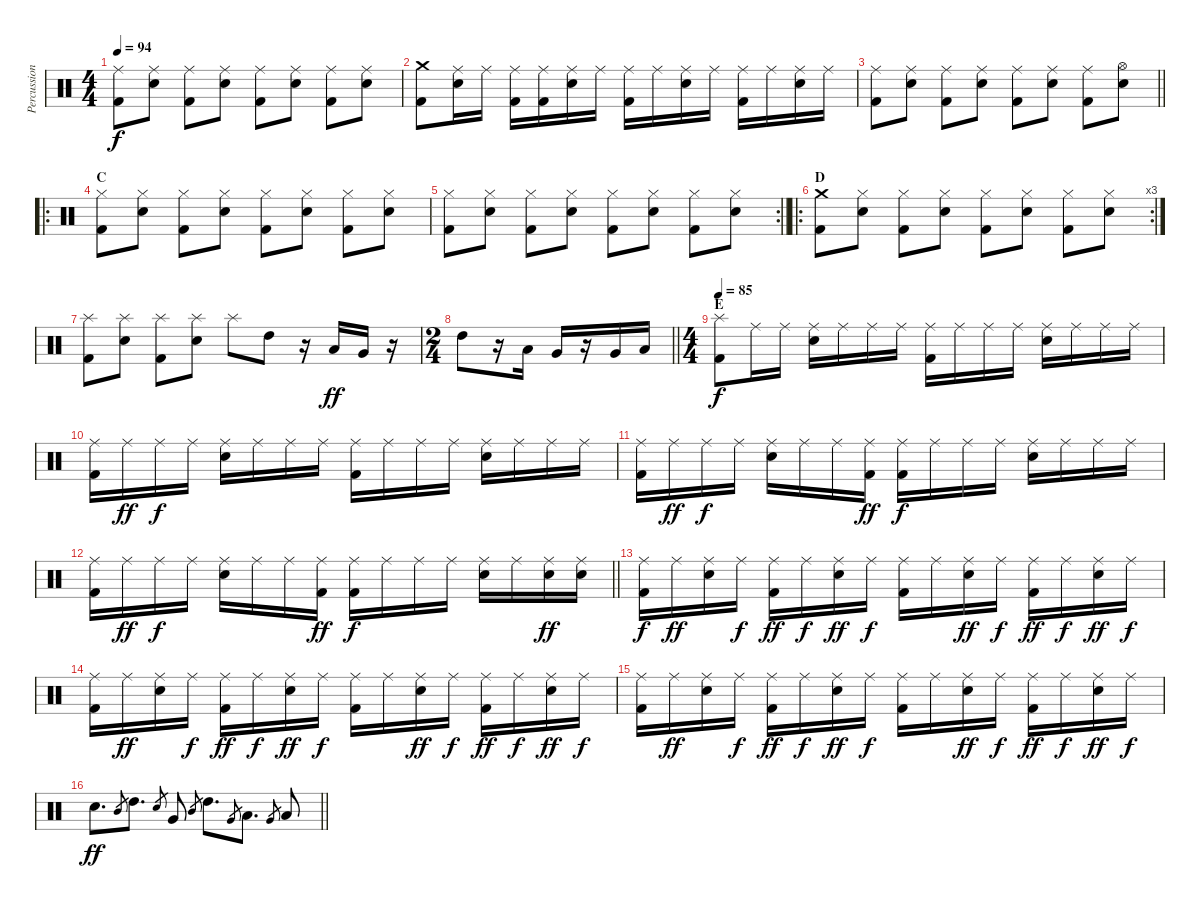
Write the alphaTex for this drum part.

\track ("Percussion" "Percussion") {instrument percussion}
\staff {score}
\articulation defaults
\ts (4 4)
\tempo 94
\clef neutral
\ks c
("Ride (middle)" "Kick (hit) 2").8{dy f} ("Ride (middle)" "Snare (hit) 2").8 ("Ride (middle)" "Kick (hit) 2").8 ("Ride (middle)" "Snare (hit) 2").8 ("Ride (middle)" "Kick (hit) 2").8 ("Ride (middle)" "Snare (hit) 2").8 ("Ride (middle)" "Kick (hit) 2").8 ("Ride (middle)" "Snare (hit) 2").8 |
("Crash medium (hit)" "Kick (hit) 2").8 ("Ride (middle)" "Snare (hit) 2").16 "Ride (middle)".16 ("Ride (middle)" "Kick (hit) 2").16 ("Ride (middle)" "Kick (hit) 2").16 ("Ride (middle)" "Snare (hit) 2").16 "Ride (middle)".16 ("Ride (middle)" "Kick (hit) 2").16 "Ride (middle)".16 ("Ride (middle)" "Snare (hit) 2").16 "Ride (middle)".16 ("Ride (middle)" "Kick (hit) 2").16 "Ride (middle)".16 ("Ride (middle)" "Snare (hit) 2").16 "Ride (middle)".16 |
\barLineRight lightlight
("Ride (middle)" "Kick (hit) 2").8 ("Ride (middle)" "Snare (hit) 2").8 ("Ride (middle)" "Kick (hit) 2").8 ("Ride (middle)" "Snare (hit) 2").8 ("Ride (middle)" "Kick (hit) 2").8 ("Ride (middle)" "Snare (hit) 2").8 ("Ride (middle)" "Kick (hit) 2").8 ("Hi-Hat (open)" "Snare (hit) 2").8 |
\ro
\section ("" "C")
("Hi-Hat (closed)" "Kick (hit) 2").8 ("Hi-Hat (closed)" "Snare (hit) 2").8 ("Hi-Hat (closed)" "Kick (hit) 2").8 ("Hi-Hat (closed)" "Snare (hit) 2").8 ("Hi-Hat (closed)" "Kick (hit) 2").8 ("Hi-Hat (closed)" "Snare (hit) 2").8 ("Hi-Hat (closed)" "Kick (hit) 2").8 ("Hi-Hat (closed)" "Snare (hit) 2").8 |
\rc 2
\barLineRight lightlight
("Hi-Hat (closed)" "Kick (hit) 2").8 ("Hi-Hat (closed)" "Snare (hit) 2").8 ("Hi-Hat (closed)" "Kick (hit) 2").8 ("Hi-Hat (closed)" "Snare (hit) 2").8 ("Hi-Hat (closed)" "Kick (hit) 2").8 ("Hi-Hat (closed)" "Snare (hit) 2").8 ("Hi-Hat (closed)" "Kick (hit) 2").8 ("Hi-Hat (closed)" "Snare (hit) 2").8 |
\ro
\rc 3
\section ("" "D")
("Crash medium (hit)" "Kick (hit) 2").8 ("Hi-Hat (closed)" "Snare (hit) 2").8 ("Hi-Hat (closed)" "Kick (hit) 2").8 ("Hi-Hat (closed)" "Snare (hit) 2").8 ("Hi-Hat (closed)" "Kick (hit) 2").8 ("Hi-Hat (closed)" "Snare (hit) 2").8 ("Hi-Hat (closed)" "Kick (hit) 2").8 ("Hi-Hat (closed)" "Snare (hit) 2").8 |
("Splash (hit)" "Kick (hit) 2").8 ("Splash (hit)" "Snare (hit) 2").8 ("Splash (hit)" "Kick (hit) 2").8 ("Splash (hit)" "Snare (hit) 2").8 "Splash (hit)".8 "High Tom (hit)".8 r.16 "Low Tom (hit)".16{dy ff} "Very Low Tom (hit)".16 r.16 |
\ts (2 4)
\barLineRight lightlight "High Tom (hit)".8
r.16 "Low Tom (hit)".16 "Very Low Tom (hit)".16 r.16 "Very Low Tom (hit)".16 "Low Floor Tom (hit)".16 |
\ts (4 4)
\section ("" "E")
\tempo 85
("Splash (hit)" "Kick (hit) 2").8{dy f} "Ride (middle)".16 "Ride (middle)".16 ("Ride (middle)" "Snare (hit) 2").16 "Ride (middle)".16 "Ride (middle)".16 "Ride (middle)".16 ("Ride (middle)" "Kick (hit) 2").16 "Ride (middle)".16 "Ride (middle)".16 "Ride (middle)".16 ("Ride (middle)" "Snare (hit) 2").16 "Ride (middle)".16 "Ride (middle)".16 "Ride (middle)".16 |
("Ride (middle)" "Kick (hit) 2").16 "Ride (middle)".16{dy ff} "Ride (middle)".16{dy f} "Ride (middle)".16 ("Ride (middle)" "Snare (hit) 2").16 "Ride (middle)".16 "Ride (middle)".16 "Ride (middle)".16 ("Ride (middle)" "Kick (hit) 2").16 "Ride (middle)".16 "Ride (middle)".16 "Ride (middle)".16 ("Ride (middle)" "Snare (hit) 2").16 "Ride (middle)".16 "Ride (middle)".16 "Ride (middle)".16 |
("Ride (middle)" "Kick (hit) 2").16 "Ride (middle)".16{dy ff} "Ride (middle)".16{dy f} "Ride (middle)".16 ("Ride (middle)" "Snare (hit) 2").16 "Ride (middle)".16 "Ride (middle)".16 ("Ride (middle)" "Kick (hit) 2").16{dy ff} ("Ride (middle)" "Kick (hit) 2").16{dy f} "Ride (middle)".16 "Ride (middle)".16 "Ride (middle)".16 ("Ride (middle)" "Snare (hit) 2").16 "Ride (middle)".16 "Ride (middle)".16 "Ride (middle)".16 |
\barLineRight lightlight
("Ride (middle)" "Kick (hit) 2").16 "Ride (middle)".16{dy ff} "Ride (middle)".16{dy f} "Ride (middle)".16 ("Ride (middle)" "Snare (hit) 2").16 "Ride (middle)".16 "Ride (middle)".16 ("Ride (middle)" "Kick (hit) 2").16{dy ff} ("Ride (middle)" "Kick (hit) 2").16{dy f} "Ride (middle)".16 "Ride (middle)".16 "Ride (middle)".16 ("Ride (middle)" "Snare (hit) 2").16 "Ride (middle)".16 ("Ride (middle)" "Snare (hit) 2").16{dy ff} ("Ride (middle)" "Snare (hit) 2").16 |
\section ("" "")
("Ride (middle)" "Kick (hit) 2").16{dy f} "Ride (middle)".16{dy ff} ("Ride (middle)" "Snare (hit) 2").16 "Ride (middle)".16{dy f} ("Ride (middle)" "Kick (hit) 2").16{dy ff} "Ride (middle)".16{dy f} ("Ride (middle)" "Snare (hit) 2").16{dy ff} "Ride (middle)".16{dy f} ("Ride (middle)" "Kick (hit) 2").16 "Ride (middle)".16 ("Ride (middle)" "Snare (hit) 2").16{dy ff} "Ride (middle)".16{dy f} ("Ride (middle)" "Kick (hit) 2").16{dy ff} "Ride (middle)".16{dy f} ("Ride (middle)" "Snare (hit) 2").16{dy ff} "Ride (middle)".16{dy f} |
("Ride (middle)" "Kick (hit) 2").16 "Ride (middle)".16{dy ff} ("Ride (middle)" "Snare (hit) 2").16 "Ride (middle)".16{dy f} ("Ride (middle)" "Kick (hit) 2").16{dy ff} "Ride (middle)".16{dy f} ("Ride (middle)" "Snare (hit) 2").16{dy ff} "Ride (middle)".16{dy f} ("Ride (middle)" "Kick (hit) 2").16 "Ride (middle)".16 ("Ride (middle)" "Snare (hit) 2").16{dy ff} "Ride (middle)".16{dy f} ("Ride (middle)" "Kick (hit) 2").16{dy ff} "Ride (middle)".16{dy f} ("Ride (middle)" "Snare (hit) 2").16{dy ff} "Ride (middle)".16{dy f} |
("Ride (middle)" "Kick (hit) 2").16 "Ride (middle)".16{dy ff} ("Ride (middle)" "Snare (hit) 2").16 "Ride (middle)".16{dy f} ("Ride (middle)" "Kick (hit) 2").16{dy ff} "Ride (middle)".16{dy f} ("Ride (middle)" "Snare (hit) 2").16{dy ff} "Ride (middle)".16{dy f} ("Ride (middle)" "Kick (hit) 2").16 "Ride (middle)".16 ("Ride (middle)" "Snare (hit) 2").16{dy ff} "Ride (middle)".16{dy f} ("Ride (middle)" "Kick (hit) 2").16{dy ff} "Ride (middle)".16{dy f} ("Ride (middle)" "Snare (hit) 2").16{dy ff} "Ride (middle)".16{dy f} |
\barLineRight lightlight "Snare (hit) 2".8{d dy ff} "Mid Tom (hit)".8{gr} "High Tom (hit)".8{d} "Snare (hit) 2".8{gr} "Very Low Tom (hit)".8 "Mid Tom (hit)".8{gr} "High Tom (hit)".8{d} "Very Low Tom (hit)".8{gr} "Low Tom (hit)".8{d} "Very Low Tom (hit)".8{gr} "Low Floor Tom (hit)".8
